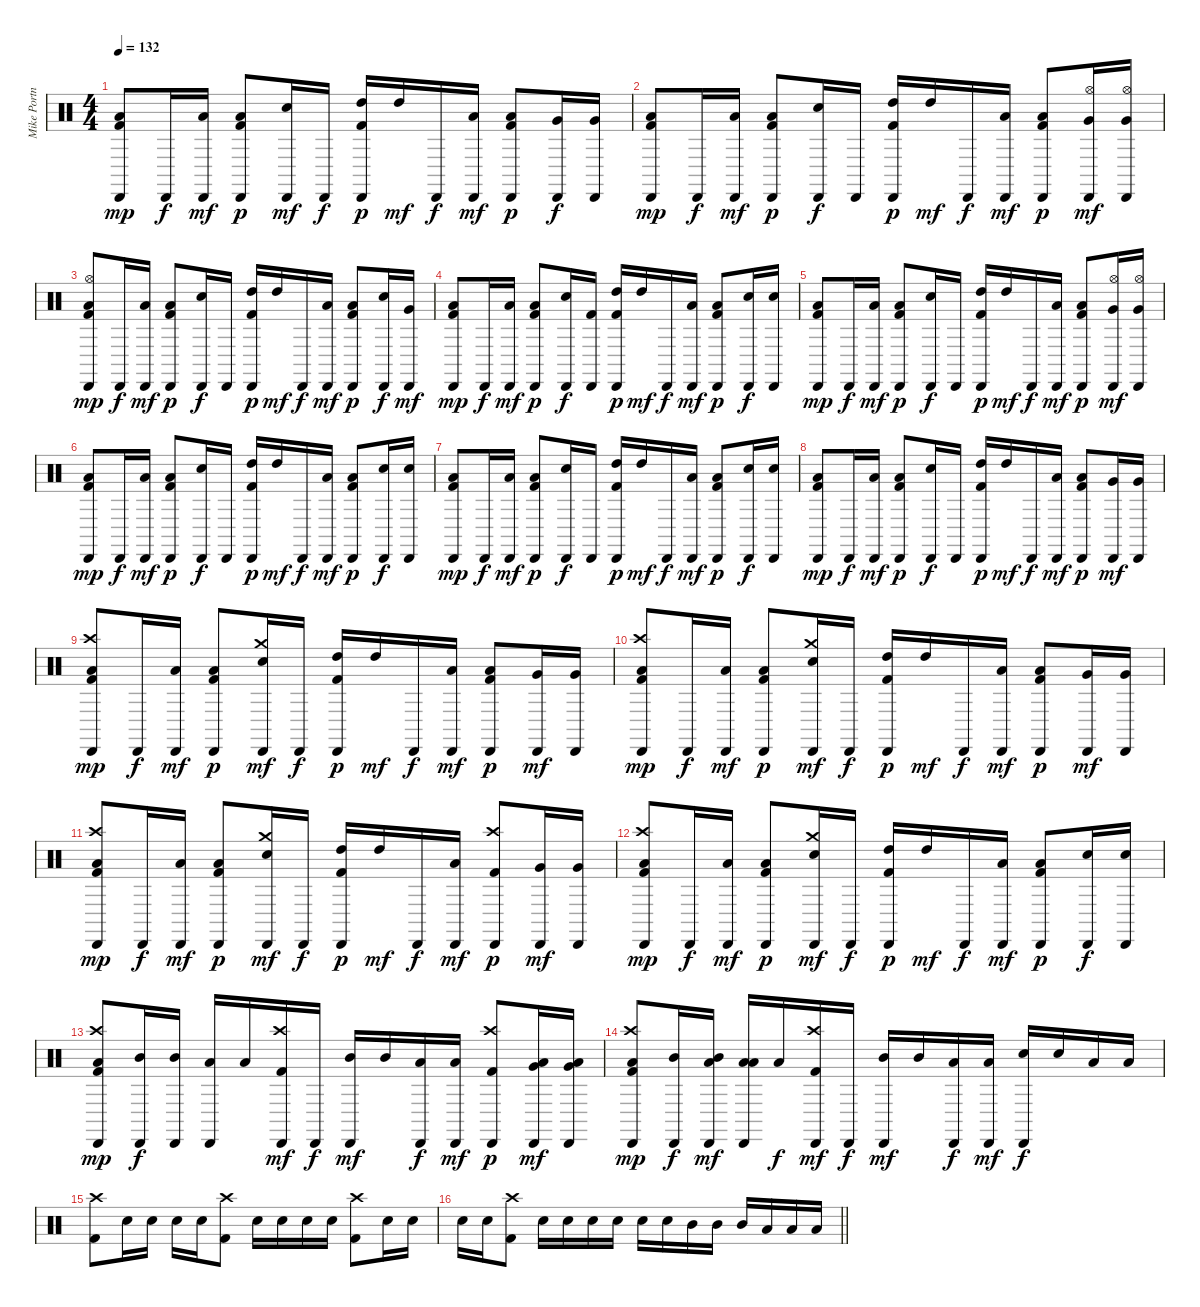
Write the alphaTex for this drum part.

\track ("Mike Portnoy - Drum" "Mike Portn") {instrument percussion}
\staff {score}
\articulation defaults
\ts (4 4)
\tempo 132
\clef neutral
\ks c
("Cabasa (hit)" "Low Floor Tom (hit)" "Kick (hit) 2").8{dy mp} "Cabasa (hit)".16{dy f} ("Cabasa (hit)" "Low Floor Tom (hit)").16{dy mf} ("Cabasa (hit)" "Low Floor Tom (hit)" "Kick (hit) 2").8{dy p} ("Cabasa (hit)" "Electric Snare (hit)").16{dy mf} "Cabasa (hit)".16{dy f} ("Cabasa (hit)" "High Tom (hit)" "Kick (hit) 2").16{dy p} "High Tom (hit)".16{dy mf} "Cabasa (hit)".16{dy f} ("Cabasa (hit)" "Low Tom (hit)").16{dy mf} ("Cabasa (hit)" "Low Tom (hit)" "Kick (hit) 2").8{dy p} ("Cabasa (hit)" "Very Low Tom (hit)").16{dy f} ("Cabasa (hit)" "Very Low Tom (hit)").16 |
("Cabasa (hit)" "Low Floor Tom (hit)" "Kick (hit) 2").8{dy mp} "Cabasa (hit)".16{dy f} ("Cabasa (hit)" "Low Floor Tom (hit)").16{dy mf} ("Cabasa (hit)" "Low Floor Tom (hit)" "Kick (hit) 2").8{dy p} ("Cabasa (hit)" "Electric Snare (hit)").16{dy f} "Cabasa (hit)".16 ("Cabasa (hit)" "High Tom (hit)" "Kick (hit) 2").16{dy p} "High Tom (hit)".16{dy mf} "Cabasa (hit)".16{dy f} ("Cabasa (hit)" "Low Tom (hit)").16{dy mf} ("Cabasa (hit)" "Low Tom (hit)" "Kick (hit) 2").8{dy p} ("Cabasa (hit)" "Hi-Hat (open)" "Very Low Tom (hit)").16{dy mf} ("Cabasa (hit)" "Hi-Hat (open)" "Very Low Tom (hit)").16 |
("Cabasa (hit)" "Hi-Hat (open)" "Low Floor Tom (hit)" "Kick (hit) 2").8{dy mp} "Cabasa (hit)".16{dy f} ("Cabasa (hit)" "Low Floor Tom (hit)").16{dy mf} ("Cabasa (hit)" "Low Floor Tom (hit)" "Kick (hit) 2").8{dy p} ("Cabasa (hit)" "Electric Snare (hit)").16{dy f} "Cabasa (hit)".16 ("Cabasa (hit)" "High Tom (hit)" "Kick (hit) 2").16{dy p} "High Tom (hit)".16{dy mf} "Cabasa (hit)".16{dy f} ("Cabasa (hit)" "Low Tom (hit)").16{dy mf} ("Cabasa (hit)" "Low Tom (hit)" "Kick (hit) 2").8{dy p} ("Cabasa (hit)" "Electric Snare (hit)").16{dy f} ("Cabasa (hit)" "Very Low Tom (hit)").16{dy mf} |
("Cabasa (hit)" "Low Floor Tom (hit)" "Kick (hit) 2").8{dy mp} "Cabasa (hit)".16{dy f} ("Cabasa (hit)" "Low Floor Tom (hit)").16{dy mf} ("Cabasa (hit)" "Low Floor Tom (hit)" "Kick (hit) 2").8{dy p} ("Cabasa (hit)" "Electric Snare (hit)").16{dy f} ("Cabasa (hit)" "Kick (hit) 2").16 ("Cabasa (hit)" "High Tom (hit)" "Kick (hit) 2").16{dy p} "High Tom (hit)".16{dy mf} "Cabasa (hit)".16{dy f} ("Cabasa (hit)" "Low Tom (hit)").16{dy mf} ("Cabasa (hit)" "Low Tom (hit)" "Kick (hit) 2").8{dy p} ("Cabasa (hit)" "Electric Snare (hit)").16{dy f} ("Cabasa (hit)" "Electric Snare (hit)").16 |
("Cabasa (hit)" "Low Floor Tom (hit)" "Kick (hit) 2").8{dy mp} "Cabasa (hit)".16{dy f} ("Cabasa (hit)" "Low Floor Tom (hit)").16{dy mf} ("Cabasa (hit)" "Low Floor Tom (hit)" "Kick (hit) 2").8{dy p} ("Cabasa (hit)" "Electric Snare (hit)").16{dy f} "Cabasa (hit)".16 ("Cabasa (hit)" "High Tom (hit)" "Kick (hit) 2").16{dy p} "High Tom (hit)".16{dy mf} "Cabasa (hit)".16{dy f} ("Cabasa (hit)" "Low Tom (hit)").16{dy mf} ("Cabasa (hit)" "Low Tom (hit)" "Kick (hit) 2").8{dy p} ("Cabasa (hit)" "Hi-Hat (open)" "Very Low Tom (hit)").16{dy mf} ("Cabasa (hit)" "Hi-Hat (open)" "Very Low Tom (hit)").16 |
("Cabasa (hit)" "Low Floor Tom (hit)" "Kick (hit) 2").8{dy mp} "Cabasa (hit)".16{dy f} ("Cabasa (hit)" "Low Floor Tom (hit)").16{dy mf} ("Cabasa (hit)" "Low Floor Tom (hit)" "Kick (hit) 2").8{dy p} ("Cabasa (hit)" "Electric Snare (hit)").16{dy f} "Cabasa (hit)".16 ("Cabasa (hit)" "High Tom (hit)" "Kick (hit) 2").16{dy p} "High Tom (hit)".16{dy mf} "Cabasa (hit)".16{dy f} ("Cabasa (hit)" "Low Tom (hit)").16{dy mf} ("Cabasa (hit)" "Low Tom (hit)" "Kick (hit) 2").8{dy p} ("Cabasa (hit)" "Electric Snare (hit)").16{dy f} ("Cabasa (hit)" "Electric Snare (hit)").16 |
("Cabasa (hit)" "Low Floor Tom (hit)" "Kick (hit) 2").8{dy mp} "Cabasa (hit)".16{dy f} ("Cabasa (hit)" "Low Floor Tom (hit)").16{dy mf} ("Cabasa (hit)" "Low Floor Tom (hit)" "Kick (hit) 2").8{dy p} ("Cabasa (hit)" "Electric Snare (hit)").16{dy f} "Cabasa (hit)".16 ("Cabasa (hit)" "High Tom (hit)" "Kick (hit) 2").16{dy p} "High Tom (hit)".16{dy mf} "Cabasa (hit)".16{dy f} ("Cabasa (hit)" "Low Tom (hit)").16{dy mf} ("Cabasa (hit)" "Low Tom (hit)" "Kick (hit) 2").8{dy p} ("Cabasa (hit)" "Electric Snare (hit)").16{dy f} ("Cabasa (hit)" "Electric Snare (hit)").16 |
("Cabasa (hit)" "Low Floor Tom (hit)" "Kick (hit) 2").8{dy mp} "Cabasa (hit)".16{dy f} ("Cabasa (hit)" "Low Floor Tom (hit)").16{dy mf} ("Cabasa (hit)" "Low Floor Tom (hit)" "Kick (hit) 2").8{dy p} ("Cabasa (hit)" "Electric Snare (hit)").16{dy f} "Cabasa (hit)".16 ("Cabasa (hit)" "High Tom (hit)" "Kick (hit) 2").16{dy p} "High Tom (hit)".16{dy mf} "Cabasa (hit)".16{dy f} ("Cabasa (hit)" "Low Tom (hit)").16{dy mf} ("Cabasa (hit)" "Low Tom (hit)" "Kick (hit) 2").8{dy p} ("Cabasa (hit)" "Very Low Tom (hit)").16{dy mf} ("Cabasa (hit)" "Very Low Tom (hit)").16 |
("Cabasa (hit)" "Crash high (hit)" "Low Floor Tom (hit)" "Kick (hit) 2").8{dy mp} "Cabasa (hit)".16{dy f} ("Cabasa (hit)" "Low Floor Tom (hit)").16{dy mf} ("Cabasa (hit)" "Low Floor Tom (hit)" "Kick (hit) 2").8{dy p} ("Cabasa (hit)" "Crash medium (hit)" "Electric Snare (hit)").16{dy mf} "Cabasa (hit)".16{dy f} ("Cabasa (hit)" "High Tom (hit)" "Kick (hit) 2").16{dy p} "High Tom (hit)".16{dy mf} "Cabasa (hit)".16{dy f} ("Cabasa (hit)" "Low Tom (hit)").16{dy mf} ("Cabasa (hit)" "Low Tom (hit)" "Kick (hit) 2").8{dy p} ("Cabasa (hit)" "Very Low Tom (hit)").16{dy mf} ("Cabasa (hit)" "Very Low Tom (hit)").16 |
("Cabasa (hit)" "Crash high (hit)" "Low Floor Tom (hit)" "Kick (hit) 2").8{dy mp} "Cabasa (hit)".16{dy f} ("Cabasa (hit)" "Low Floor Tom (hit)").16{dy mf} ("Cabasa (hit)" "Low Floor Tom (hit)" "Kick (hit) 2").8{dy p} ("Cabasa (hit)" "Crash medium (hit)" "Electric Snare (hit)").16{dy mf} "Cabasa (hit)".16{dy f} ("Cabasa (hit)" "High Tom (hit)" "Kick (hit) 2").16{dy p} "High Tom (hit)".16{dy mf} "Cabasa (hit)".16{dy f} ("Cabasa (hit)" "Low Tom (hit)").16{dy mf} ("Cabasa (hit)" "Low Tom (hit)" "Kick (hit) 2").8{dy p} ("Cabasa (hit)" "Very Low Tom (hit)").16{dy mf} ("Cabasa (hit)" "Very Low Tom (hit)").16 |
("Cabasa (hit)" "Crash high (hit)" "Low Floor Tom (hit)" "Kick (hit) 2").8{dy mp} "Cabasa (hit)".16{dy f} ("Cabasa (hit)" "Low Floor Tom (hit)").16{dy mf} ("Cabasa (hit)" "Low Floor Tom (hit)" "Kick (hit) 2").8{dy p} ("Cabasa (hit)" "Crash medium (hit)" "Electric Snare (hit)").16{dy mf} "Cabasa (hit)".16{dy f} ("Cabasa (hit)" "High Tom (hit)" "Kick (hit) 2").16{dy p} "High Tom (hit)".16{dy mf} "Cabasa (hit)".16{dy f} ("Cabasa (hit)" "Low Tom (hit)").16{dy mf} ("Cabasa (hit)" "Crash high (hit)" "Kick (hit) 2").8{dy p} ("Cabasa (hit)" "Very Low Tom (hit)").16{dy mf} ("Cabasa (hit)" "Very Low Tom (hit)").16 |
("Cabasa (hit)" "Crash high (hit)" "Low Floor Tom (hit)" "Kick (hit) 2").8{dy mp} "Cabasa (hit)".16{dy f} ("Cabasa (hit)" "Low Floor Tom (hit)").16{dy mf} ("Cabasa (hit)" "Low Floor Tom (hit)" "Kick (hit) 2").8{dy p} ("Cabasa (hit)" "Crash medium (hit)" "Electric Snare (hit)").16{dy mf} "Cabasa (hit)".16{dy f} ("Cabasa (hit)" "High Tom (hit)" "Kick (hit) 2").16{dy p} "High Tom (hit)".16{dy mf} "Cabasa (hit)".16{dy f} ("Cabasa (hit)" "Low Tom (hit)").16{dy mf} ("Cabasa (hit)" "Low Tom (hit)" "Kick (hit) 2").8{dy p} ("Cabasa (hit)" "Electric Snare (hit)").16{dy f} ("Cabasa (hit)" "Electric Snare (hit)").16 |
("Cabasa (hit)" "Crash high (hit)" "Low Floor Tom (hit)" "Kick (hit) 2").8{dy mp} ("Cabasa (hit)" "Mid Tom (hit)").16{dy f} ("Cabasa (hit)" "Mid Tom (hit)").16 ("Cabasa (hit)" "Low Tom (hit)").16 "Low Tom (hit)".16 ("Cabasa (hit)" "Crash high (hit)" "Kick (hit) 2").16{dy mf} "Cabasa (hit)".16{dy f} ("Cabasa (hit)" "Mid Tom (hit)").16{dy mf} "Mid Tom (hit)".16 ("Cabasa (hit)" "Low Tom (hit)").16{dy f} ("Cabasa (hit)" "Low Tom (hit)").16{dy mf} ("Cabasa (hit)" "Crash high (hit)" "Kick (hit) 2").8{dy p} ("Cabasa (hit)" "Low Tom (hit)" "Very Low Tom (hit)").16{dy mf} ("Cabasa (hit)" "Low Tom (hit)" "Very Low Tom (hit)").16 |
("Cabasa (hit)" "Crash high (hit)" "Low Floor Tom (hit)" "Kick (hit) 2").8{dy mp} ("Cabasa (hit)" "Mid Tom (hit)").16{dy f} ("Cabasa (hit)" "Mid Tom (hit)" "Low Floor Tom (hit)").16{dy mf} ("Cabasa (hit)" "Low Tom (hit)" "Low Floor Tom (hit)").16 "Low Tom (hit)".16{dy f} ("Cabasa (hit)" "Crash high (hit)" "Kick (hit) 2").16{dy mf} "Cabasa (hit)".16{dy f} ("Cabasa (hit)" "Mid Tom (hit)").16{dy mf} "Mid Tom (hit)".16 ("Cabasa (hit)" "Low Tom (hit)").16{dy f} ("Cabasa (hit)" "Low Tom (hit)").16{dy mf} ("Cabasa (hit)" "Electric Snare (hit)").16{dy f} "Electric Snare (hit)".16 "Low Tom (hit)".16 "Low Tom (hit)".16 |
("Crash high (hit)" "Kick (hit) 2").8 "Electric Snare (hit)".16 "Electric Snare (hit)".16 "Electric Snare (hit)".16 "Electric Snare (hit)".16 ("Crash high (hit)" "Kick (hit) 2").8 "Electric Snare (hit)".16 "Electric Snare (hit)".16 "Electric Snare (hit)".16 "Electric Snare (hit)".16 ("Crash high (hit)" "Kick (hit) 2").8 "Electric Snare (hit)".16 "Electric Snare (hit)".16 |
\barLineRight lightlight "Electric Snare (hit)".16 "Electric Snare (hit)".16
("Crash high (hit)" "Kick (hit) 2").8 "Electric Snare (hit)".16 "Electric Snare (hit)".16 "Electric Snare (hit)".16 "Electric Snare (hit)".16 "Electric Snare (hit)".16 "Electric Snare (hit)".16 "Mid Tom (hit)".16 "Mid Tom (hit)".16 "Mid Tom (hit)".16 "Low Tom (hit)".16 "Low Tom (hit)".16 "Low Tom (hit)".16
